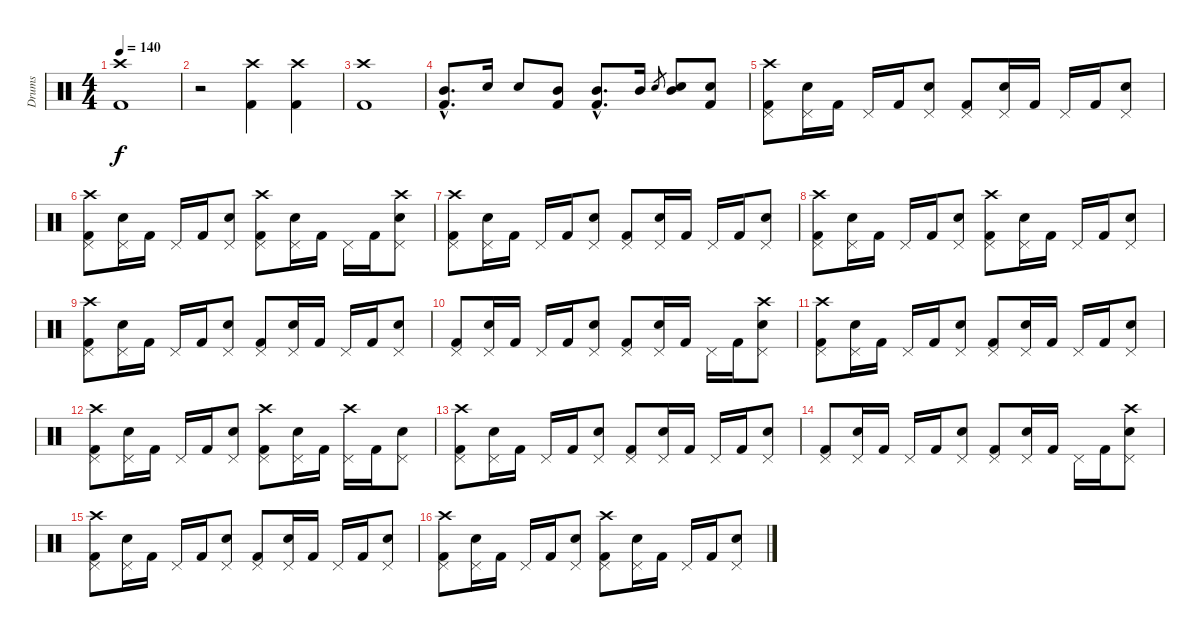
\track ("Drums" "Drums") {instrument percussion}
\staff {score}
\articulation defaults
\ts (4 4)
\tempo 140
\clef neutral
\ks c
("Crash high (hit)" "Kick (hit) 2").1{dy f} |
r.2 ("Crash high (hit)" "Kick (hit) 2").4 ("Crash high (hit)" "Kick (hit) 2").4 |
("Crash high (hit)" "Kick (hit) 2").1 |
("Mid Tom (hit)"{hac} "Kick (hit) 2"{hac}).8{d} "Electric Snare (hit)".16 "Electric Snare (hit)".8 ("Mid Tom (hit)" "Kick (hit) 2").8 ("Mid Tom (hit)"{hac} "Kick (hit) 2"{hac}).8{d} "Mid Tom (hit)".16 "Electric Snare (hit)".8{gr} ("Electric Snare (hit)" "Mid Tom (hit)").8 ("Electric Snare (hit)" "Kick (hit) 2").8 |
("Pedal Hi-Hat (hit)" "Crash high (hit)" "Kick (hit) 2").8 ("Pedal Hi-Hat (hit)" "Electric Snare (hit)").16 "Kick (hit) 2".16 "Pedal Hi-Hat (hit)".16 "Kick (hit) 2".16 ("Pedal Hi-Hat (hit)" "Electric Snare (hit)").8 ("Pedal Hi-Hat (hit)" "Kick (hit) 2").8 ("Pedal Hi-Hat (hit)" "Electric Snare (hit)").16 "Kick (hit) 2".16 "Pedal Hi-Hat (hit)".16 "Kick (hit) 2".16 ("Pedal Hi-Hat (hit)" "Electric Snare (hit)").8 |
("Pedal Hi-Hat (hit)" "Crash high (hit)" "Kick (hit) 2").8 ("Pedal Hi-Hat (hit)" "Electric Snare (hit)").16 "Kick (hit) 2".16 "Pedal Hi-Hat (hit)".16 "Kick (hit) 2".16 ("Pedal Hi-Hat (hit)" "Electric Snare (hit)").8 ("Pedal Hi-Hat (hit)" "Crash high (hit)" "Kick (hit) 2").8 ("Pedal Hi-Hat (hit)" "Electric Snare (hit)").16 "Kick (hit) 2".16 "Pedal Hi-Hat (hit)".16 "Kick (hit) 2".16 ("Pedal Hi-Hat (hit)" "Electric Snare (hit)" "Crash high (hit)").8 |
("Pedal Hi-Hat (hit)" "Crash high (hit)" "Kick (hit) 2").8 ("Pedal Hi-Hat (hit)" "Electric Snare (hit)").16 "Kick (hit) 2".16 "Pedal Hi-Hat (hit)".16 "Kick (hit) 2".16 ("Pedal Hi-Hat (hit)" "Electric Snare (hit)").8 ("Pedal Hi-Hat (hit)" "Kick (hit) 2").8 ("Pedal Hi-Hat (hit)" "Electric Snare (hit)").16 "Kick (hit) 2".16 "Pedal Hi-Hat (hit)".16 "Kick (hit) 2".16 ("Pedal Hi-Hat (hit)" "Electric Snare (hit)").8 |
("Pedal Hi-Hat (hit)" "Crash high (hit)" "Kick (hit) 2").8 ("Pedal Hi-Hat (hit)" "Electric Snare (hit)").16 "Kick (hit) 2".16 "Pedal Hi-Hat (hit)".16 "Kick (hit) 2".16 ("Pedal Hi-Hat (hit)" "Electric Snare (hit)").8 ("Pedal Hi-Hat (hit)" "Crash high (hit)" "Kick (hit) 2").8 ("Pedal Hi-Hat (hit)" "Electric Snare (hit)").16 "Kick (hit) 2".16 "Pedal Hi-Hat (hit)".16 "Kick (hit) 2".16 ("Pedal Hi-Hat (hit)" "Electric Snare (hit)").8 |
("Pedal Hi-Hat (hit)" "Crash high (hit)" "Kick (hit) 2").8 ("Pedal Hi-Hat (hit)" "Electric Snare (hit)").16 "Kick (hit) 2".16 "Pedal Hi-Hat (hit)".16 "Kick (hit) 2".16 ("Pedal Hi-Hat (hit)" "Electric Snare (hit)").8 ("Pedal Hi-Hat (hit)" "Kick (hit) 2").8 ("Pedal Hi-Hat (hit)" "Electric Snare (hit)").16 "Kick (hit) 2".16 "Pedal Hi-Hat (hit)".16 "Kick (hit) 2".16 ("Pedal Hi-Hat (hit)" "Electric Snare (hit)").8 |
("Pedal Hi-Hat (hit)" "Kick (hit) 2").8 ("Pedal Hi-Hat (hit)" "Electric Snare (hit)").16 "Kick (hit) 2".16 "Pedal Hi-Hat (hit)".16 "Kick (hit) 2".16 ("Pedal Hi-Hat (hit)" "Electric Snare (hit)").8 ("Pedal Hi-Hat (hit)" "Kick (hit) 2").8 ("Pedal Hi-Hat (hit)" "Electric Snare (hit)").16 "Kick (hit) 2".16 "Pedal Hi-Hat (hit)".16 "Kick (hit) 2".16 ("Pedal Hi-Hat (hit)" "Electric Snare (hit)" "Crash high (hit)").8 |
("Pedal Hi-Hat (hit)" "Crash high (hit)" "Kick (hit) 2").8 ("Pedal Hi-Hat (hit)" "Electric Snare (hit)").16 "Kick (hit) 2".16 "Pedal Hi-Hat (hit)".16 "Kick (hit) 2".16 ("Pedal Hi-Hat (hit)" "Electric Snare (hit)").8 ("Pedal Hi-Hat (hit)" "Kick (hit) 2").8 ("Pedal Hi-Hat (hit)" "Electric Snare (hit)").16 "Kick (hit) 2".16 "Pedal Hi-Hat (hit)".16 "Kick (hit) 2".16 ("Pedal Hi-Hat (hit)" "Electric Snare (hit)").8 |
("Pedal Hi-Hat (hit)" "Crash high (hit)" "Kick (hit) 2").8 ("Pedal Hi-Hat (hit)" "Electric Snare (hit)").16 "Kick (hit) 2".16 "Pedal Hi-Hat (hit)".16 "Kick (hit) 2".16 ("Pedal Hi-Hat (hit)" "Electric Snare (hit)").8 ("Pedal Hi-Hat (hit)" "Crash high (hit)" "Kick (hit) 2").8 ("Pedal Hi-Hat (hit)" "Electric Snare (hit)").16 "Kick (hit) 2".16 ("Pedal Hi-Hat (hit)" "Crash high (hit)").16 "Kick (hit) 2".16 ("Pedal Hi-Hat (hit)" "Electric Snare (hit)").8 |
("Pedal Hi-Hat (hit)" "Crash high (hit)" "Kick (hit) 2").8 ("Pedal Hi-Hat (hit)" "Electric Snare (hit)").16 "Kick (hit) 2".16 "Pedal Hi-Hat (hit)".16 "Kick (hit) 2".16 ("Pedal Hi-Hat (hit)" "Electric Snare (hit)").8 ("Pedal Hi-Hat (hit)" "Kick (hit) 2").8 ("Pedal Hi-Hat (hit)" "Electric Snare (hit)").16 "Kick (hit) 2".16 "Pedal Hi-Hat (hit)".16 "Kick (hit) 2".16 ("Pedal Hi-Hat (hit)" "Electric Snare (hit)").8 |
("Pedal Hi-Hat (hit)" "Kick (hit) 2").8 ("Pedal Hi-Hat (hit)" "Electric Snare (hit)").16 "Kick (hit) 2".16 "Pedal Hi-Hat (hit)".16 "Kick (hit) 2".16 ("Pedal Hi-Hat (hit)" "Electric Snare (hit)").8 ("Pedal Hi-Hat (hit)" "Kick (hit) 2").8 ("Pedal Hi-Hat (hit)" "Electric Snare (hit)").16 "Kick (hit) 2".16 "Pedal Hi-Hat (hit)".16 "Kick (hit) 2".16 ("Pedal Hi-Hat (hit)" "Electric Snare (hit)" "Crash high (hit)").8 |
("Pedal Hi-Hat (hit)" "Crash high (hit)" "Kick (hit) 2").8 ("Pedal Hi-Hat (hit)" "Electric Snare (hit)").16 "Kick (hit) 2".16 "Pedal Hi-Hat (hit)".16 "Kick (hit) 2".16 ("Pedal Hi-Hat (hit)" "Electric Snare (hit)").8 ("Pedal Hi-Hat (hit)" "Kick (hit) 2").8 ("Pedal Hi-Hat (hit)" "Electric Snare (hit)").16 "Kick (hit) 2".16 "Pedal Hi-Hat (hit)".16 "Kick (hit) 2".16 ("Pedal Hi-Hat (hit)" "Electric Snare (hit)").8 |
("Pedal Hi-Hat (hit)" "Crash high (hit)" "Kick (hit) 2").8 ("Pedal Hi-Hat (hit)" "Electric Snare (hit)").16 "Kick (hit) 2".16 "Pedal Hi-Hat (hit)".16 "Kick (hit) 2".16 ("Pedal Hi-Hat (hit)" "Electric Snare (hit)").8 ("Pedal Hi-Hat (hit)" "Crash high (hit)" "Kick (hit) 2").8 ("Pedal Hi-Hat (hit)" "Electric Snare (hit)").16 "Kick (hit) 2".16 "Pedal Hi-Hat (hit)".16 "Kick (hit) 2".16 ("Pedal Hi-Hat (hit)" "Electric Snare (hit)").8
